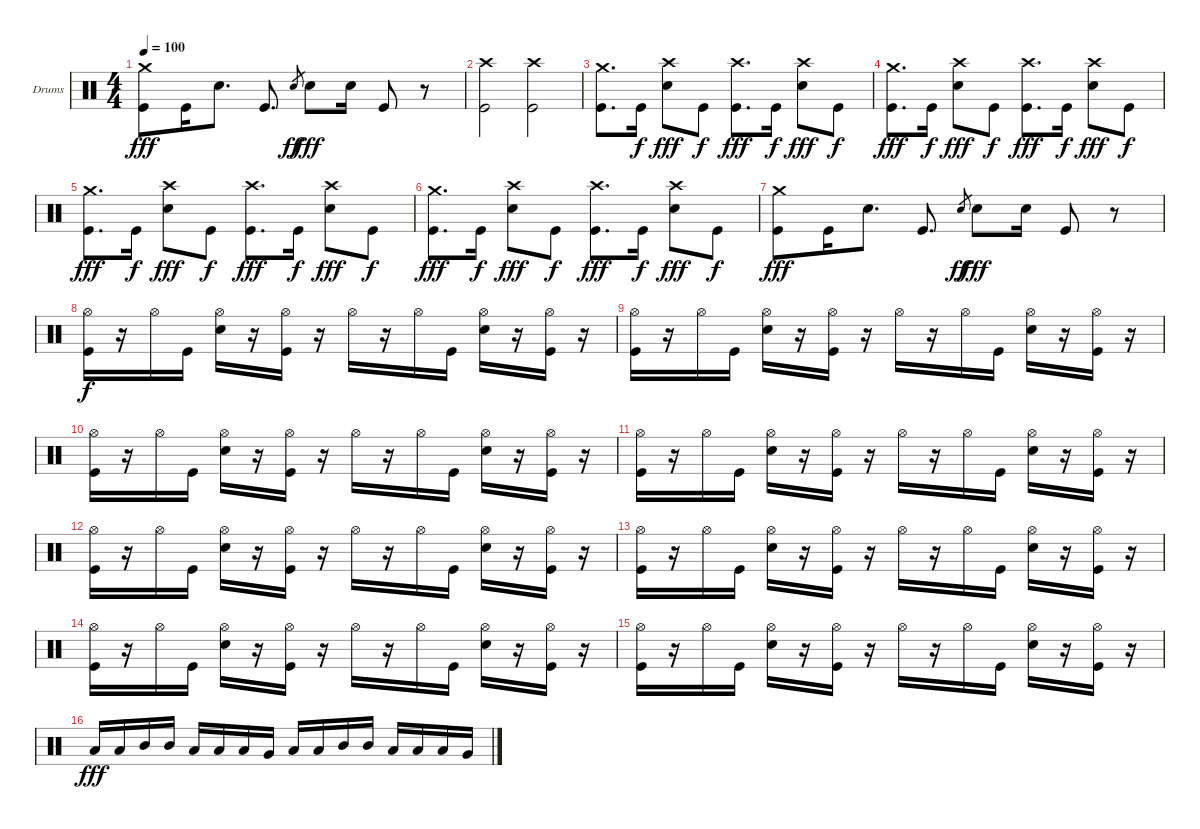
\bracketExtendMode groupsimilarinstruments
\firstSystemTrackNameOrientation horizontal
\otherSystemsTrackNameOrientation horizontal
\track ("Lars Ulrich (Drum)" "Drums") {instrument percussion}
\staff {score}
\articulation defaults
\ts (4 4)
\tempo 100
\clef neutral
\scale
0.333333
\ks c
("Crash medium (hit)" "Kick (hit)").8{dy fff} "Kick (hit)".16 "Snare (hit) 2".8{d} "Kick (hit)".8{d} "Snare (hit) 2".8{gr dy ff} "Snare (hit) 2".8{dy fff} "Snare (hit) 2".16 "Kick (hit)".8 r.8 |
\scale
0.333333 ("Crash high (hit)" "Kick (hit)").2 ("Crash high (hit)" "Kick (hit)").2 |
\scale
0.333333 ("Crash medium (hit)" "Kick (hit)").8{d} "Kick (hit)".16{dy f} ("Crash high (hit)" "Snare (hit) 2").8{dy fff} "Kick (hit)".8{dy f} ("Crash high (hit)" "Kick (hit)").8{d dy fff} "Kick (hit)".16{dy f} ("Crash high (hit)" "Snare (hit) 2").8{dy fff} "Kick (hit)".8{dy f} |
\scale
0.333333 ("Crash medium (hit)" "Kick (hit)").8{d dy fff} "Kick (hit)".16{dy f} ("Crash high (hit)" "Snare (hit) 2").8{dy fff} "Kick (hit)".8{dy f} ("Crash high (hit)" "Kick (hit)").8{d dy fff} "Kick (hit)".16{dy f} ("Crash high (hit)" "Snare (hit) 2").8{dy fff} "Kick (hit)".8{dy f} |
\scale
0.333333 ("Crash medium (hit)" "Kick (hit)").8{d dy fff} "Kick (hit)".16{dy f} ("Crash high (hit)" "Snare (hit) 2").8{dy fff} "Kick (hit)".8{dy f} ("Crash high (hit)" "Kick (hit)").8{d dy fff} "Kick (hit)".16{dy f} ("Crash high (hit)" "Snare (hit) 2").8{dy fff} "Kick (hit)".8{dy f} |
\scale
0.333333 ("Crash medium (hit)" "Kick (hit)").8{d dy fff} "Kick (hit)".16{dy f} ("Crash high (hit)" "Snare (hit) 2").8{dy fff} "Kick (hit)".8{dy f} ("Crash high (hit)" "Kick (hit)").8{d dy fff} "Kick (hit)".16{dy f} ("Crash high (hit)" "Snare (hit) 2").8{dy fff} "Kick (hit)".8{dy f} |
\scale
0.333333 ("Crash medium (hit)" "Kick (hit)").8{dy fff} "Kick (hit)".16 "Snare (hit) 2".8{d} "Kick (hit)".8{d} "Snare (hit) 2".8{gr dy ff} "Snare (hit) 2".8{dy fff} "Snare (hit) 2".16 "Kick (hit)".8 r.8 |
\scale
0.333333 ("Hi-Hat (open)" "Kick (hit)").16{dy f} r.16 "Hi-Hat (open)".16 "Kick (hit)".16 ("Hi-Hat (open)" "Snare (hit) 2").16 r.16 ("Hi-Hat (open)" "Kick (hit)").16 r.16 "Hi-Hat (open)".16 r.16 "Hi-Hat (open)".16 "Kick (hit)".16 ("Hi-Hat (open)" "Snare (hit) 2").16 r.16 ("Hi-Hat (open)" "Kick (hit)").16 r.16 |
\scale
0.333333 ("Hi-Hat (open)" "Kick (hit)").16 r.16 "Hi-Hat (open)".16 "Kick (hit)".16 ("Hi-Hat (open)" "Snare (hit) 2").16 r.16 ("Hi-Hat (open)" "Kick (hit)").16 r.16 "Hi-Hat (open)".16 r.16 "Hi-Hat (open)".16 "Kick (hit)".16 ("Hi-Hat (open)" "Snare (hit) 2").16 r.16 ("Hi-Hat (open)" "Kick (hit)").16 r.16 |
\scale
0.333333 ("Hi-Hat (open)" "Kick (hit)").16 r.16 "Hi-Hat (open)".16 "Kick (hit)".16 ("Hi-Hat (open)" "Snare (hit) 2").16 r.16 ("Hi-Hat (open)" "Kick (hit)").16 r.16 "Hi-Hat (open)".16 r.16 "Hi-Hat (open)".16 "Kick (hit)".16 ("Hi-Hat (open)" "Snare (hit) 2").16 r.16 ("Hi-Hat (open)" "Kick (hit)").16 r.16 |
\scale
0.333333 ("Hi-Hat (open)" "Kick (hit)").16 r.16 "Hi-Hat (open)".16 "Kick (hit)".16 ("Hi-Hat (open)" "Snare (hit) 2").16 r.16 ("Hi-Hat (open)" "Kick (hit)").16 r.16 "Hi-Hat (open)".16 r.16 "Hi-Hat (open)".16 "Kick (hit)".16 ("Hi-Hat (open)" "Snare (hit) 2").16 r.16 ("Hi-Hat (open)" "Kick (hit)").16 r.16 |
\scale
0.333333 ("Hi-Hat (open)" "Kick (hit)").16 r.16 "Hi-Hat (open)".16 "Kick (hit)".16 ("Hi-Hat (open)" "Snare (hit) 2").16 r.16 ("Hi-Hat (open)" "Kick (hit)").16 r.16 "Hi-Hat (open)".16 r.16 "Hi-Hat (open)".16 "Kick (hit)".16 ("Hi-Hat (open)" "Snare (hit) 2").16 r.16 ("Hi-Hat (open)" "Kick (hit)").16 r.16 |
\scale
0.333333 ("Hi-Hat (open)" "Kick (hit)").16 r.16 "Hi-Hat (open)".16 "Kick (hit)".16 ("Hi-Hat (open)" "Snare (hit) 2").16 r.16 ("Hi-Hat (open)" "Kick (hit)").16 r.16 "Hi-Hat (open)".16 r.16 "Hi-Hat (open)".16 "Kick (hit)".16 ("Hi-Hat (open)" "Snare (hit) 2").16 r.16 ("Hi-Hat (open)" "Kick (hit)").16 r.16 |
\scale
0.333333 ("Hi-Hat (open)" "Kick (hit)").16 r.16 "Hi-Hat (open)".16 "Kick (hit)".16 ("Hi-Hat (open)" "Snare (hit) 2").16 r.16 ("Hi-Hat (open)" "Kick (hit)").16 r.16 "Hi-Hat (open)".16 r.16 "Hi-Hat (open)".16 "Kick (hit)".16 ("Hi-Hat (open)" "Snare (hit) 2").16 r.16 ("Hi-Hat (open)" "Kick (hit)").16 r.16 |
\scale
0.333333 ("Hi-Hat (open)" "Kick (hit)").16 r.16 "Hi-Hat (open)".16 "Kick (hit)".16 ("Hi-Hat (open)" "Snare (hit) 2").16 r.16 ("Hi-Hat (open)" "Kick (hit)").16 r.16 "Hi-Hat (open)".16 r.16 "Hi-Hat (open)".16 "Kick (hit)".16 ("Hi-Hat (open)" "Snare (hit) 2").16 r.16 ("Hi-Hat (open)" "Kick (hit)").16 r.16 |
\scale
0.333333 "Low Tom (hit)".16{dy fff} "Low Tom (hit)".16 "Mid Tom (hit)".16 "Mid Tom (hit)".16 "Low Tom (hit)".16 "Low Tom (hit)".16 "Low Tom (hit)".16 "Very Low Tom (hit)".16 "Low Tom (hit)".16 "Low Tom (hit)".16 "Mid Tom (hit)".16 "Mid Tom (hit)".16 "Low Tom (hit)".16 "Low Tom (hit)".16 "Low Tom (hit)".16 "Very Low Tom (hit)".16
